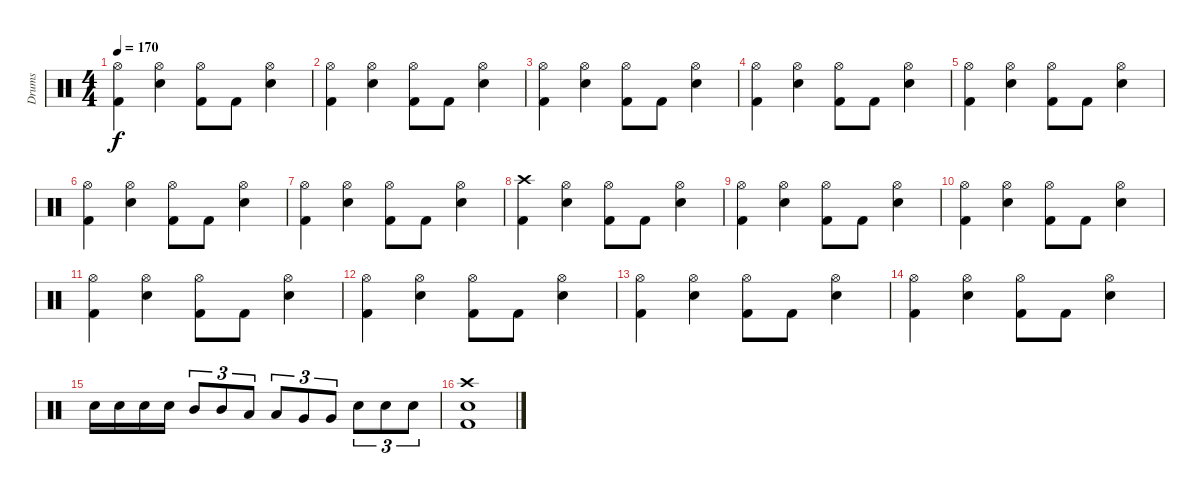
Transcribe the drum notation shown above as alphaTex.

\track ("Drums" "Drums") {instrument percussion}
\staff {score}
\articulation defaults
\ts (4 4)
\tempo 170
\clef neutral
\ks c
("Hi-Hat (open)" "Kick (hit) 2").4{dy f} ("Hi-Hat (open)" "Snare (hit) 2").4 ("Hi-Hat (open)" "Kick (hit) 2").8 "Kick (hit) 2".8 ("Hi-Hat (open)" "Snare (hit) 2").4 |
("Hi-Hat (open)" "Kick (hit) 2").4 ("Hi-Hat (open)" "Snare (hit) 2").4 ("Hi-Hat (open)" "Kick (hit) 2").8 "Kick (hit) 2".8 ("Hi-Hat (open)" "Snare (hit) 2").4 |
("Hi-Hat (open)" "Kick (hit) 2").4 ("Hi-Hat (open)" "Snare (hit) 2").4 ("Hi-Hat (open)" "Kick (hit) 2").8 "Kick (hit) 2".8 ("Hi-Hat (open)" "Snare (hit) 2").4 |
("Hi-Hat (open)" "Kick (hit) 2").4 ("Hi-Hat (open)" "Snare (hit) 2").4 ("Hi-Hat (open)" "Kick (hit) 2").8 "Kick (hit) 2".8 ("Hi-Hat (open)" "Snare (hit) 2").4 |
("Hi-Hat (open)" "Kick (hit) 2").4 ("Hi-Hat (open)" "Snare (hit) 2").4 ("Hi-Hat (open)" "Kick (hit) 2").8 "Kick (hit) 2".8 ("Hi-Hat (open)" "Snare (hit) 2").4 |
("Hi-Hat (open)" "Kick (hit) 2").4 ("Hi-Hat (open)" "Snare (hit) 2").4 ("Hi-Hat (open)" "Kick (hit) 2").8 "Kick (hit) 2".8 ("Hi-Hat (open)" "Snare (hit) 2").4 |
("Hi-Hat (open)" "Kick (hit) 2").4 ("Hi-Hat (open)" "Snare (hit) 2").4 ("Hi-Hat (open)" "Kick (hit) 2").8 "Kick (hit) 2".8 ("Hi-Hat (open)" "Snare (hit) 2").4 |
("Crash high (hit)" "Kick (hit) 2").4 ("Hi-Hat (open)" "Snare (hit) 2").4 ("Hi-Hat (open)" "Kick (hit) 2").8 "Kick (hit) 2".8 ("Hi-Hat (open)" "Snare (hit) 2").4 |
("Hi-Hat (open)" "Kick (hit) 2").4 ("Hi-Hat (open)" "Snare (hit) 2").4 ("Hi-Hat (open)" "Kick (hit) 2").8 "Kick (hit) 2".8 ("Hi-Hat (open)" "Snare (hit) 2").4 |
("Hi-Hat (open)" "Kick (hit) 2").4 ("Hi-Hat (open)" "Snare (hit) 2").4 ("Hi-Hat (open)" "Kick (hit) 2").8 "Kick (hit) 2".8 ("Hi-Hat (open)" "Snare (hit) 2").4 |
("Hi-Hat (open)" "Kick (hit) 2").4 ("Hi-Hat (open)" "Snare (hit) 2").4 ("Hi-Hat (open)" "Kick (hit) 2").8 "Kick (hit) 2".8 ("Hi-Hat (open)" "Snare (hit) 2").4 |
("Hi-Hat (open)" "Kick (hit) 2").4 ("Hi-Hat (open)" "Snare (hit) 2").4 ("Hi-Hat (open)" "Kick (hit) 2").8 "Kick (hit) 2".8 ("Hi-Hat (open)" "Snare (hit) 2").4 |
("Hi-Hat (open)" "Kick (hit) 2").4 ("Hi-Hat (open)" "Snare (hit) 2").4 ("Hi-Hat (open)" "Kick (hit) 2").8 "Kick (hit) 2".8 ("Hi-Hat (open)" "Snare (hit) 2").4 |
("Hi-Hat (open)" "Kick (hit) 2").4 ("Hi-Hat (open)" "Snare (hit) 2").4 ("Hi-Hat (open)" "Kick (hit) 2").8 "Kick (hit) 2".8 ("Hi-Hat (open)" "Snare (hit) 2").4 |
"Snare (hit) 2".16 "Snare (hit) 2".16 "Snare (hit) 2".16 "Snare (hit) 2".16 "Mid Tom (hit)".8{tu (3 2)} "Mid Tom (hit)".8{tu (3 2)} "Low Tom (hit)".8{tu (3 2)} "Low Tom (hit)".8{tu (3 2)} "Very Low Tom (hit)".8{tu (3 2)} "Very Low Tom (hit)".8{tu (3 2)} "Snare (hit) 2".8{tu (3 2)} "Snare (hit) 2".8{tu (3 2)} "Snare (hit) 2".8{tu (3 2)} |
("Crash high (hit)" "Snare (hit) 2" "Kick (hit) 2").1
